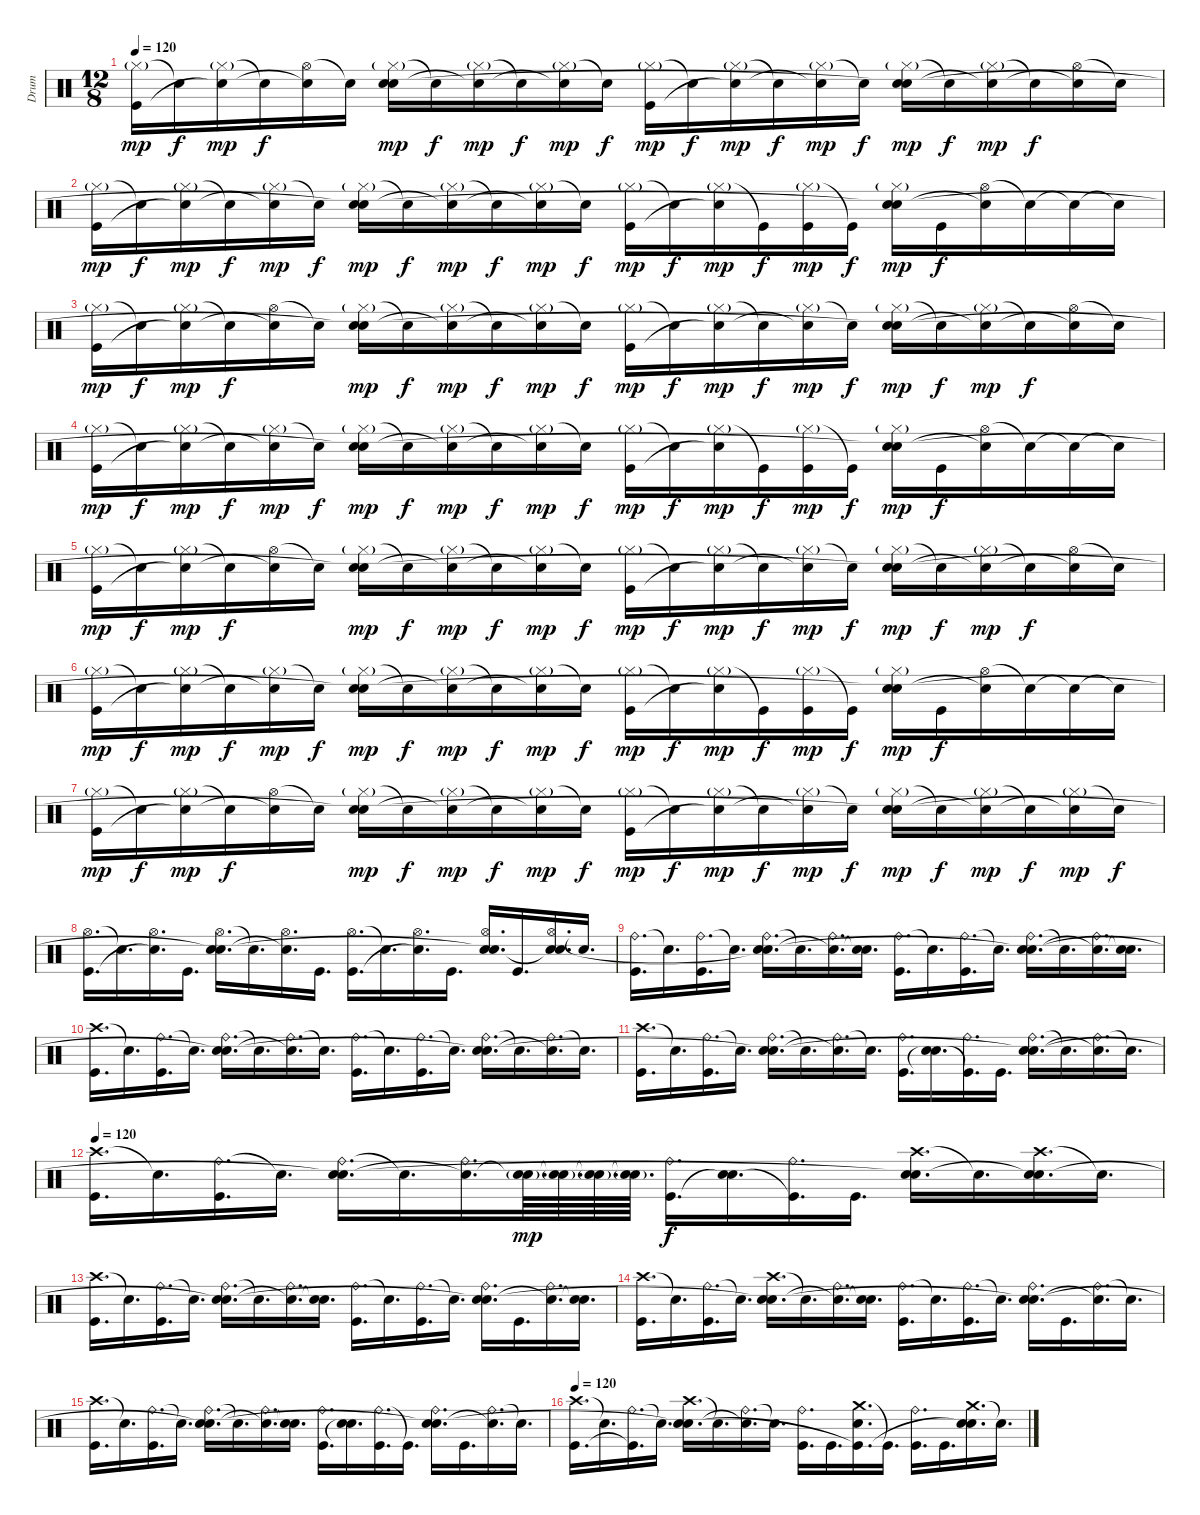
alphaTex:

\track ("Drum" "Drum") {instrument percussion}
\staff {score}
\articulation defaults
\ts (12 8)
\tempo 120
\clef neutral
\ks c
("Hi-Hat (closed)"{g} "Kick (hit)").16{dy mp} "Snare (hit)"{t}.16{dy f} ("Hi-Hat (closed)"{g} "Snare (hit)"{t}).16{dy mp} "Snare (hit)"{t}.16{dy f} ("Hi-Hat (open)" "Snare (hit)"{t}).16 "Snare (hit)"{t}.16 ("Hi-Hat (closed)"{g} "Electric Snare (hit)" "Snare (hit)"{t}).16{dy mp} "Snare (hit)"{t}.16{dy f} ("Hi-Hat (closed)"{g} "Snare (hit)"{t}).16{dy mp} "Snare (hit)"{t}.16{dy f} ("Hi-Hat (closed)"{g} "Snare (hit)"{t}).16{dy mp} "Snare (hit)"{t}.16{dy f} ("Hi-Hat (closed)"{g} "Kick (hit)").16{dy mp} "Snare (hit)"{t}.16{dy f} ("Hi-Hat (closed)"{g} "Snare (hit)"{t}).16{dy mp} "Snare (hit)"{t}.16{dy f} ("Hi-Hat (closed)"{g} "Snare (hit)"{t}).16{dy mp} "Snare (hit)"{t}.16{dy f} ("Hi-Hat (closed)"{g} "Electric Snare (hit)" "Snare (hit)"{t}).16{dy mp} "Snare (hit)"{t}.16{dy f} ("Hi-Hat (closed)"{g} "Snare (hit)"{t}).16{dy mp} "Snare (hit)"{t}.16{dy f} ("Hi-Hat (open)" "Snare (hit)"{t}).16 "Snare (hit)"{t}.16 |
("Hi-Hat (closed)"{g} "Kick (hit)").16{dy mp} "Snare (hit)"{t}.16{dy f} ("Hi-Hat (closed)"{g} "Snare (hit)"{t}).16{dy mp} "Snare (hit)"{t}.16{dy f} ("Hi-Hat (closed)"{g} "Snare (hit)"{t}).16{dy mp} "Snare (hit)"{t}.16{dy f} ("Hi-Hat (closed)"{g} "Electric Snare (hit)" "Snare (hit)"{t}).16{dy mp} "Snare (hit)"{t}.16{dy f} ("Hi-Hat (closed)"{g} "Snare (hit)"{t}).16{dy mp} "Snare (hit)"{t}.16{dy f} ("Hi-Hat (closed)"{g} "Snare (hit)"{t}).16{dy mp} "Snare (hit)"{t}.16{dy f} ("Hi-Hat (closed)"{g} "Kick (hit)").16{dy mp} "Snare (hit)"{t}.16{dy f} ("Hi-Hat (closed)"{g} "Snare (hit)"{t}).16{dy mp} "Kick (hit)"{t}.16{dy f} ("Hi-Hat (closed)"{g} "Kick (hit)").16{dy mp} "Kick (hit)"{t}.16{dy f} ("Hi-Hat (closed)"{g} "Electric Snare (hit)" "Snare (hit)"{t}).16{dy mp} "Kick (hit)".16{dy f} ("Hi-Hat (open)" "Snare (hit)"{t}).16 "Snare (hit)"{t}.16 "Snare (hit)"{t}.16 "Snare (hit)"{t}.16 |
("Hi-Hat (closed)"{g} "Kick (hit)").16{dy mp} "Snare (hit)"{t}.16{dy f} ("Hi-Hat (closed)"{g} "Snare (hit)"{t}).16{dy mp} "Snare (hit)"{t}.16{dy f} ("Hi-Hat (open)" "Snare (hit)"{t}).16 "Snare (hit)"{t}.16 ("Hi-Hat (closed)"{g} "Electric Snare (hit)" "Snare (hit)"{t}).16{dy mp} "Snare (hit)"{t}.16{dy f} ("Hi-Hat (closed)"{g} "Snare (hit)"{t}).16{dy mp} "Snare (hit)"{t}.16{dy f} ("Hi-Hat (closed)"{g} "Snare (hit)"{t}).16{dy mp} "Snare (hit)"{t}.16{dy f} ("Hi-Hat (closed)"{g} "Kick (hit)").16{dy mp} "Snare (hit)"{t}.16{dy f} ("Hi-Hat (closed)"{g} "Snare (hit)"{t}).16{dy mp} "Snare (hit)"{t}.16{dy f} ("Hi-Hat (closed)"{g} "Snare (hit)"{t}).16{dy mp} "Snare (hit)"{t}.16{dy f} ("Hi-Hat (closed)"{g} "Electric Snare (hit)" "Snare (hit)"{t}).16{dy mp} "Snare (hit)"{t}.16{dy f} ("Hi-Hat (closed)"{g} "Snare (hit)"{t}).16{dy mp} "Snare (hit)"{t}.16{dy f} ("Hi-Hat (open)" "Snare (hit)"{t}).16 "Snare (hit)"{t}.16 |
("Hi-Hat (closed)"{g} "Kick (hit)").16{dy mp} "Snare (hit)"{t}.16{dy f} ("Hi-Hat (closed)"{g} "Snare (hit)"{t}).16{dy mp} "Snare (hit)"{t}.16{dy f} ("Hi-Hat (closed)"{g} "Snare (hit)"{t}).16{dy mp} "Snare (hit)"{t}.16{dy f} ("Hi-Hat (closed)"{g} "Electric Snare (hit)" "Snare (hit)"{t}).16{dy mp} "Snare (hit)"{t}.16{dy f} ("Hi-Hat (closed)"{g} "Snare (hit)"{t}).16{dy mp} "Snare (hit)"{t}.16{dy f} ("Hi-Hat (closed)"{g} "Snare (hit)"{t}).16{dy mp} "Snare (hit)"{t}.16{dy f} ("Hi-Hat (closed)"{g} "Kick (hit)").16{dy mp} "Snare (hit)"{t}.16{dy f} ("Hi-Hat (closed)"{g} "Snare (hit)"{t}).16{dy mp} "Kick (hit)"{t}.16{dy f} ("Hi-Hat (closed)"{g} "Kick (hit)").16{dy mp} "Kick (hit)"{t}.16{dy f} ("Hi-Hat (closed)"{g} "Electric Snare (hit)" "Snare (hit)"{t}).16{dy mp} "Kick (hit)".16{dy f} ("Hi-Hat (open)" "Snare (hit)"{t}).16 "Snare (hit)"{t}.16 "Snare (hit)"{t}.16 "Snare (hit)"{t}.16 |
("Hi-Hat (closed)"{g} "Kick (hit)").16{dy mp} "Snare (hit)"{t}.16{dy f} ("Hi-Hat (closed)"{g} "Snare (hit)"{t}).16{dy mp} "Snare (hit)"{t}.16{dy f} ("Hi-Hat (open)" "Snare (hit)"{t}).16 "Snare (hit)"{t}.16 ("Hi-Hat (closed)"{g} "Electric Snare (hit)" "Snare (hit)"{t}).16{dy mp} "Snare (hit)"{t}.16{dy f} ("Hi-Hat (closed)"{g} "Snare (hit)"{t}).16{dy mp} "Snare (hit)"{t}.16{dy f} ("Hi-Hat (closed)"{g} "Snare (hit)"{t}).16{dy mp} "Snare (hit)"{t}.16{dy f} ("Hi-Hat (closed)"{g} "Kick (hit)").16{dy mp} "Snare (hit)"{t}.16{dy f} ("Hi-Hat (closed)"{g} "Snare (hit)"{t}).16{dy mp} "Snare (hit)"{t}.16{dy f} ("Hi-Hat (closed)"{g} "Snare (hit)"{t}).16{dy mp} "Snare (hit)"{t}.16{dy f} ("Hi-Hat (closed)"{g} "Electric Snare (hit)" "Snare (hit)"{t}).16{dy mp} "Snare (hit)"{t}.16{dy f} ("Hi-Hat (closed)"{g} "Snare (hit)"{t}).16{dy mp} "Snare (hit)"{t}.16{dy f} ("Hi-Hat (open)" "Snare (hit)"{t}).16 "Snare (hit)"{t}.16 |
("Hi-Hat (closed)"{g} "Kick (hit)").16{dy mp} "Snare (hit)"{t}.16{dy f} ("Hi-Hat (closed)"{g} "Snare (hit)"{t}).16{dy mp} "Snare (hit)"{t}.16{dy f} ("Hi-Hat (closed)"{g} "Snare (hit)"{t}).16{dy mp} "Snare (hit)"{t}.16{dy f} ("Hi-Hat (closed)"{g} "Electric Snare (hit)" "Snare (hit)"{t}).16{dy mp} "Snare (hit)"{t}.16{dy f} ("Hi-Hat (closed)"{g} "Snare (hit)"{t}).16{dy mp} "Snare (hit)"{t}.16{dy f} ("Hi-Hat (closed)"{g} "Snare (hit)"{t}).16{dy mp} "Snare (hit)"{t}.16{dy f} ("Hi-Hat (closed)"{g} "Kick (hit)").16{dy mp} "Snare (hit)"{t}.16{dy f} ("Hi-Hat (closed)"{g} "Snare (hit)"{t}).16{dy mp} "Kick (hit)"{t}.16{dy f} ("Hi-Hat (closed)"{g} "Kick (hit)").16{dy mp} "Kick (hit)"{t}.16{dy f} ("Hi-Hat (closed)"{g} "Electric Snare (hit)" "Snare (hit)"{t}).16{dy mp} "Kick (hit)".16{dy f} ("Hi-Hat (open)" "Snare (hit)"{t}).16 "Snare (hit)"{t}.16 "Snare (hit)"{t}.16 "Snare (hit)"{t}.16 |
("Hi-Hat (closed)"{g} "Kick (hit)").16{dy mp} "Snare (hit)"{t}.16{dy f} ("Hi-Hat (closed)"{g} "Snare (hit)"{t}).16{dy mp} "Snare (hit)"{t}.16{dy f} ("Hi-Hat (open)" "Snare (hit)"{t}).16 "Snare (hit)"{t}.16 ("Hi-Hat (closed)"{g} "Electric Snare (hit)" "Snare (hit)"{t}).16{dy mp} "Snare (hit)"{t}.16{dy f} ("Hi-Hat (closed)"{g} "Snare (hit)"{t}).16{dy mp} "Snare (hit)"{t}.16{dy f} ("Hi-Hat (closed)"{g} "Snare (hit)"{t}).16{dy mp} "Snare (hit)"{t}.16{dy f} ("Hi-Hat (closed)"{g} "Kick (hit)").16{dy mp} "Snare (hit)"{t}.16{dy f} ("Hi-Hat (closed)"{g} "Snare (hit)"{t}).16{dy mp} "Snare (hit)"{t}.16{dy f} ("Hi-Hat (closed)"{g} "Snare (hit)"{t}).16{dy mp} "Snare (hit)"{t}.16{dy f} ("Hi-Hat (closed)"{g} "Electric Snare (hit)" "Snare (hit)"{t}).16{dy mp} "Snare (hit)"{t}.16{dy f} ("Hi-Hat (closed)"{g} "Snare (hit)"{t}).16{dy mp} "Snare (hit)"{t}.16{dy f} ("Hi-Hat (closed)"{g} "Snare (hit)"{t}).16{dy mp} "Snare (hit)"{t}.16{dy f} |
("Hi-Hat (open)" "Kick (hit)").16{d} "Snare (hit)"{t}.16{d} ("Hi-Hat (open)" "Snare (hit)"{t}).16{d} "Kick (hit)".16{d} ("Hi-Hat (open)" "Electric Snare (hit)" "Snare (hit)"{t}).16{d} "Snare (hit)"{t}.16{d} ("Hi-Hat (open)" "Snare (hit)"{t}).16{d} "Kick (hit)".16{d} ("Hi-Hat (open)" "Kick (hit)").16{d} "Snare (hit)"{t}.16{d} ("Hi-Hat (open)" "Snare (hit)"{t}).16{d} "Kick (hit)".16{d} ("Hi-Hat (open)" "Electric Snare (hit)" "Snare (hit)"{t}).16{d} "Kick (hit)".16{d} ("Hi-Hat (open)" "Electric Snare (hit)" "Snare (hit)"{t}).16{d} "Snare (hit)"{t}.16{d} |
("Ride (bell)" "Kick (hit)").16{d} "Snare (hit)"{t}.16{d} ("Ride (bell)" "Kick (hit)").16{d} "Snare (hit)"{t}.16{d} ("Ride (bell)" "Electric Snare (hit)" "Snare (hit)"{t}).16{d} "Snare (hit)"{t}.16{d} ("Ride (bell)" "Snare (hit)"{t}).16{d} ("Electric Snare (hit)" "Snare (hit)"{t}).16{d} ("Ride (bell)" "Kick (hit)").16{d} "Snare (hit)"{t}.16{d} ("Ride (bell)" "Kick (hit)").16{d} "Snare (hit)"{t}.16{d} ("Ride (bell)" "Electric Snare (hit)" "Snare (hit)"{t}).16{d} "Snare (hit)"{t}.16{d} ("Ride (bell)" "Snare (hit)"{t}).16{d} ("Electric Snare (hit)" "Snare (hit)"{t}).16{d} |
("Crash high (hit)" "Kick (hit)").16{d} "Snare (hit)"{t}.16{d} ("Ride (bell)" "Kick (hit)").16{d} "Snare (hit)"{t}.16{d} ("Ride (bell)" "Electric Snare (hit)" "Snare (hit)"{t}).16{d} "Snare (hit)"{t}.16{d} ("Ride (bell)" "Snare (hit)"{t}).16{d} "Snare (hit)"{t}.16{d} ("Ride (bell)" "Kick (hit)").16{d} "Snare (hit)"{t}.16{d} ("Ride (bell)" "Kick (hit)").16{d} "Snare (hit)"{t}.16{d} ("Ride (bell)" "Electric Snare (hit)" "Snare (hit)"{t}).16{d} "Snare (hit)"{t}.16{d} ("Ride (bell)" "Snare (hit)"{t}).16{d} "Snare (hit)"{t}.16{d} |
("Crash high (hit)" "Kick (hit)").16{d} "Snare (hit)"{t}.16{d} ("Ride (bell)" "Kick (hit)").16{d} "Snare (hit)"{t}.16{d} ("Ride (bell)" "Electric Snare (hit)" "Snare (hit)"{t}).16{d} "Snare (hit)"{t}.16{d} ("Ride (bell)" "Snare (hit)"{t}).16{d} "Snare (hit)"{t}.16{d} ("Ride (bell)" "Kick (hit)").16{d} ("Electric Snare (hit)" "Snare (hit)"{t}).16{d} ("Ride (bell)" "Kick (hit)"{t}).16{d} "Kick (hit)".16{d} ("Ride (bell)" "Electric Snare (hit)" "Snare (hit)"{t}).16{d} "Snare (hit)"{t}.16{d} ("Ride (bell)" "Snare (hit)"{t}).16{d} "Snare (hit)"{t}.16{d} |
\tempo 120
("Crash high (hit)" "Kick (hit)").16{d} "Snare (hit)"{t}.16{d} ("Ride (bell)" "Kick (hit)").16{d} "Snare (hit)"{t}.16{d} ("Ride (bell)" "Electric Snare (hit)" "Snare (hit)"{t}).16{d} "Snare (hit)"{t}.16{d} ("Ride (bell)" "Snare (hit)"{t}).16{d} ("Electric Snare (hit)"{g} "Snare (hit)"{t}).64{d dy mp} ("Electric Snare (hit)"{g} "Snare (hit)"{t}).64{d} ("Electric Snare (hit)"{g} "Snare (hit)"{t}).64{d} ("Electric Snare (hit)"{g} "Snare (hit)"{t}).64{d} ("Ride (bell)" "Kick (hit)").16{d dy f} ("Electric Snare (hit)" "Snare (hit)"{t}).16{d} ("Ride (bell)" "Kick (hit)"{t}).16{d} "Kick (hit)".16{d} ("Crash high (hit)" "Electric Snare (hit)" "Snare (hit)"{t}).16{d} "Snare (hit)"{t}.16{d} ("Crash high (hit)" "Electric Snare (hit)" "Snare (hit)"{t}).16{d} "Snare (hit)"{t}.16{d} |
("Crash high (hit)" "Kick (hit)").16{d} "Snare (hit)"{t}.16{d} ("Ride (bell)" "Kick (hit)").16{d} "Snare (hit)"{t}.16{d} ("Ride (bell)" "Electric Snare (hit)" "Snare (hit)"{t}).16{d} "Snare (hit)"{t}.16{d} ("Ride (bell)" "Snare (hit)"{t}).16{d} ("Electric Snare (hit)" "Snare (hit)"{t}).16{d} ("Ride (bell)" "Kick (hit)").16{d} "Snare (hit)"{t}.16{d} ("Ride (bell)" "Kick (hit)").16{d} "Snare (hit)"{t}.16{d} ("Ride (bell)" "Electric Snare (hit)" "Snare (hit)"{t}).16{d} "Kick (hit)".16{d} ("Ride (bell)" "Snare (hit)"{t}).16{d} ("Electric Snare (hit)" "Snare (hit)"{t}).16{d} |
("Crash high (hit)" "Kick (hit)").16{d} "Snare (hit)"{t}.16{d} ("Ride (bell)" "Kick (hit)").16{d} "Snare (hit)"{t}.16{d} ("Crash high (hit)" "Electric Snare (hit)" "Snare (hit)"{t}).16{d} "Snare (hit)"{t}.16{d} ("Ride (bell)" "Snare (hit)"{t}).16{d} ("Electric Snare (hit)" "Snare (hit)"{t}).16{d} ("Ride (bell)" "Kick (hit)").16{d} "Snare (hit)"{t}.16{d} ("Ride (bell)" "Kick (hit)").16{d} "Snare (hit)"{t}.16{d} ("Ride (bell)" "Electric Snare (hit)" "Snare (hit)"{t}).16{d} "Kick (hit)".16{d} ("Ride (bell)" "Snare (hit)"{t}).16{d} "Snare (hit)"{t}.16{d} |
("Crash high (hit)" "Kick (hit)").16{d} "Snare (hit)"{t}.16{d} ("Ride (bell)" "Kick (hit)").16{d} "Snare (hit)"{t}.16{d} ("Ride (bell)" "Electric Snare (hit)" "Snare (hit)"{t}).16{d} "Snare (hit)"{t}.16{d} ("Ride (bell)" "Snare (hit)"{t}).16{d} ("Electric Snare (hit)" "Snare (hit)"{t}).16{d} ("Ride (bell)" "Kick (hit)").16{d} ("Electric Snare (hit)" "Snare (hit)"{t}).16{d} ("Ride (bell)" "Kick (hit)").16{d} "Kick (hit)"{t}.16{d} ("Ride (bell)" "Electric Snare (hit)" "Snare (hit)"{t}).16{d} "Kick (hit)".16{d} ("Ride (bell)" "Snare (hit)"{t}).16{d} "Snare (hit)"{t}.16{d} |
\tempo 120
("Crash high (hit)" "Kick (hit)").16{d} "Snare (hit)"{t}.16{d} ("Ride (bell)" "Kick (hit)"{t}).16{d} "Snare (hit)"{t}.16{d} ("Crash high (hit)" "Electric Snare (hit)" "Snare (hit)"{t}).16{d} "Snare (hit)"{t}.16{d} ("Ride (bell)" "Snare (hit)"{t}).16{d} "Snare (hit)"{t}.16{d} ("Ride (bell)" "Kick (hit)").16{d} "Kick (hit)".16{d} ("Crash medium (hit)" "Electric Snare (hit)" "Kick (hit)"{t}).16{d} "Kick (hit)"{t}.16{d} ("Ride (bell)" "Kick (hit)").16{d} "Kick (hit)".16{d} ("Crash medium (hit)" "Electric Snare (hit)" "Snare (hit)"{t}).16{d} "Snare (hit)"{t}.16{d}
